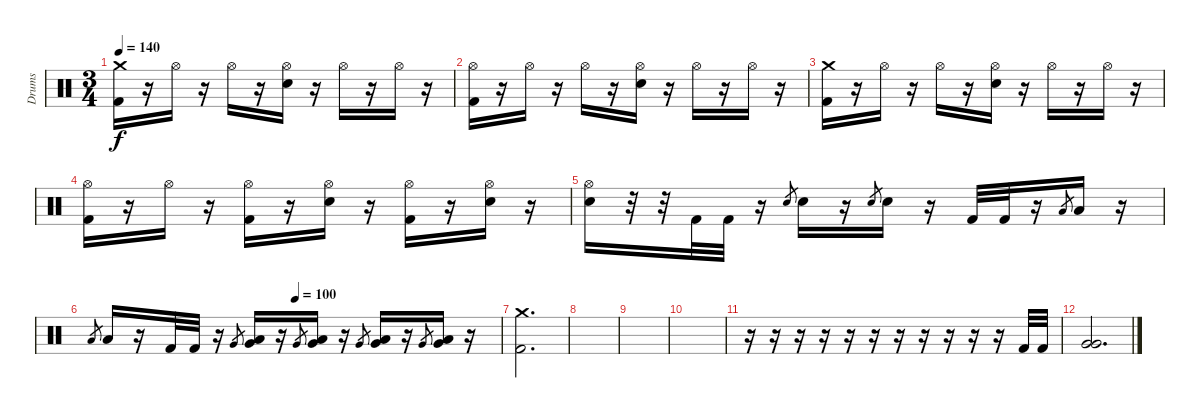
\track ("Drums" "Drums") {instrument percussion}
\staff {score}
\articulation defaults
\ts (3 4)
\tempo 140
\clef neutral
\ks c
("Crash medium (hit)" "Kick (hit) 2").16{dy f} r.16 "Hi-Hat (open)".16 r.16 "Hi-Hat (open)".16 r.16 ("Hi-Hat (open)" "Electric Snare (hit)").16 r.16 "Hi-Hat (open)".16 r.16 "Hi-Hat (open)".16 r.16 |
("Hi-Hat (open)" "Kick (hit) 2").16 r.16 "Hi-Hat (open)".16 r.16 "Hi-Hat (open)".16 r.16 ("Hi-Hat (open)" "Electric Snare (hit)").16 r.16 "Hi-Hat (open)".16 r.16 "Hi-Hat (open)".16 r.16 |
("Crash medium (hit)" "Kick (hit) 2").16 r.16 "Hi-Hat (open)".16 r.16 "Hi-Hat (open)".16 r.16 ("Hi-Hat (open)" "Electric Snare (hit)").16 r.16 "Hi-Hat (open)".16 r.16 "Hi-Hat (open)".16 r.16 |
("Hi-Hat (open)" "Kick (hit) 2").16 r.16 "Hi-Hat (open)".16 r.16 ("Hi-Hat (open)" "Kick (hit) 2").16 r.16 ("Hi-Hat (open)" "Electric Snare (hit)").16 r.16 ("Hi-Hat (open)" "Kick (hit) 2").16 r.16 ("Hi-Hat (open)" "Electric Snare (hit)").16 r.16 |
("Hi-Hat (open)" "Electric Snare (hit)").16 r.32 r.32 "Kick (hit) 2".32 "Kick (hit) 2".32 r.16 "Electric Snare (hit)".8{gr} "Electric Snare (hit)".16 r.16 "Electric Snare (hit)".8{gr} "Electric Snare (hit)".16 r.16 "Kick (hit) 2".32 "Kick (hit) 2".32 r.16 "Low Tom (hit)".8{gr} "Low Tom (hit)".16 r.16 |
\tempo (100 0.5)
"Low Tom (hit)".8{gr} "Low Tom (hit)".16 r.16 "Kick (hit) 2".32 "Kick (hit) 2".32 r.16 "Very Low Tom (hit)".8{gr} ("Low Floor Tom (hit)" "Very Low Tom (hit)").16 r.16 "Very Low Tom (hit)".8{gr} ("Low Floor Tom (hit)" "Very Low Tom (hit)").16 r.16 "Very Low Tom (hit)".8{gr} ("Low Floor Tom (hit)" "Very Low Tom (hit)").16 r.16 "Very Low Tom (hit)".8{gr} ("Low Floor Tom (hit)" "Very Low Tom (hit)").16 r.16 |
("Crash medium (hit)" "Kick (hit) 2").2{d} |
|
|
|
r.16 r.16 r.16 r.16 r.16 r.16 r.16 r.16 r.16 r.16 r.16 "Kick (hit) 2".32 "Kick (hit) 2".32 |
("Very Low Tom (hit)" "Very Low Tom (hit)").2{d}
